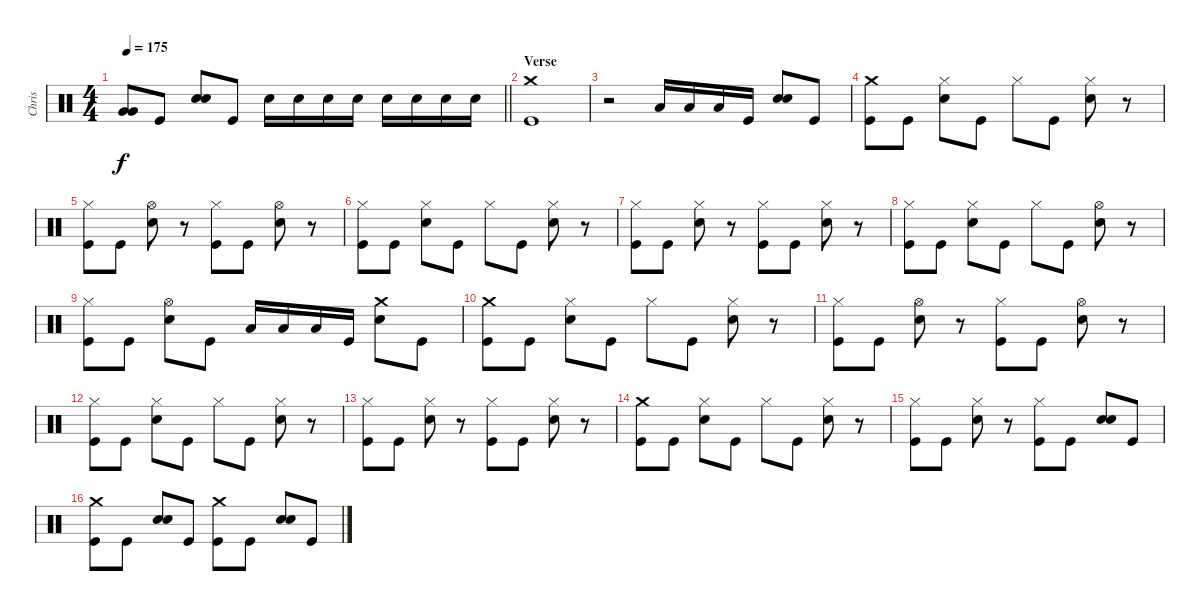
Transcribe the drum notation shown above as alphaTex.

\track ("Chris" "Chris") {instrument percussion}
\staff {score}
\articulation defaults
\ts (4 4)
\tempo 175
\clef neutral
\barLineRight lightlight
\ks c
("Very Low Tom (hit)" "Very Low Tom (hit)").8{bd 120 dy f} "Kick (hit)".8 ("Snare (hit) 2" "Snare (hit) 2").8{bd 120} "Kick (hit)".8 "Snare (hit) 2".16 "Snare (hit) 2".16 "Snare (hit) 2".16 "Snare (hit) 2".16 "Snare (hit) 2".16 "Snare (hit) 2".16 "Snare (hit) 2".16 "Snare (hit) 2".16 |
\section ("" "Verse")
("Crash medium (hit)" "Kick (hit)").1 |
r.2 "Low Floor Tom (hit)".16 "Low Floor Tom (hit)".16 "Low Floor Tom (hit)".16 "Kick (hit)".16 ("Snare (hit) 2" "Snare (hit) 2").8{bd 120} "Kick (hit)".8 |
("Crash medium (hit)" "Kick (hit)").8 "Kick (hit)".8 ("Hi-Hat (closed)" "Snare (hit) 2").8 "Kick (hit)".8 "Hi-Hat (closed)".8 "Kick (hit)".8 ("Hi-Hat (closed)" "Snare (hit) 2").8 r.8 |
("Hi-Hat (closed)" "Kick (hit)").8 "Kick (hit)".8 ("Hi-Hat (open)" "Snare (hit) 2").8 r.8 ("Hi-Hat (closed)" "Kick (hit)").8 "Kick (hit)".8 ("Hi-Hat (open)" "Snare (hit) 2").8 r.8 |
("Hi-Hat (closed)" "Kick (hit)").8 "Kick (hit)".8 ("Hi-Hat (closed)" "Snare (hit) 2").8 "Kick (hit)".8 "Hi-Hat (closed)".8 "Kick (hit)".8 ("Hi-Hat (closed)" "Snare (hit) 2").8 r.8 |
("Hi-Hat (closed)" "Kick (hit)").8 "Kick (hit)".8 ("Hi-Hat (closed)" "Snare (hit) 2").8 r.8 ("Hi-Hat (closed)" "Kick (hit)").8 "Kick (hit)".8 ("Hi-Hat (closed)" "Snare (hit) 2").8 r.8 |
("Hi-Hat (closed)" "Kick (hit)").8 "Kick (hit)".8 ("Hi-Hat (closed)" "Snare (hit) 2").8 "Kick (hit)".8 "Hi-Hat (closed)".8 "Kick (hit)".8 ("Hi-Hat (open)" "Snare (hit) 2").8 r.8 |
("Hi-Hat (closed)" "Kick (hit)").8 "Kick (hit)".8 ("Hi-Hat (open)" "Snare (hit) 2").8 "Kick (hit)".8 "Low Floor Tom (hit)".16 "Low Floor Tom (hit)".16 "Low Floor Tom (hit)".16 "Kick (hit)".16 ("Crash medium (hit)" "Snare (hit) 2").8 "Kick (hit)".8 |
("Crash medium (hit)" "Kick (hit)").8 "Kick (hit)".8 ("Hi-Hat (closed)" "Snare (hit) 2").8 "Kick (hit)".8 "Hi-Hat (closed)".8 "Kick (hit)".8 ("Hi-Hat (closed)" "Snare (hit) 2").8 r.8 |
("Hi-Hat (closed)" "Kick (hit)").8 "Kick (hit)".8 ("Hi-Hat (open)" "Snare (hit) 2").8 r.8 ("Hi-Hat (closed)" "Kick (hit)").8 "Kick (hit)".8 ("Hi-Hat (open)" "Snare (hit) 2").8 r.8 |
("Hi-Hat (closed)" "Kick (hit)").8 "Kick (hit)".8 ("Hi-Hat (closed)" "Snare (hit) 2").8 "Kick (hit)".8 "Hi-Hat (closed)".8 "Kick (hit)".8 ("Hi-Hat (closed)" "Snare (hit) 2").8 r.8 |
("Hi-Hat (closed)" "Kick (hit)").8 "Kick (hit)".8 ("Hi-Hat (closed)" "Snare (hit) 2").8 r.8 ("Hi-Hat (closed)" "Kick (hit)").8 "Kick (hit)".8 ("Hi-Hat (closed)" "Snare (hit) 2").8 r.8 |
("Crash medium (hit)" "Kick (hit)").8 "Kick (hit)".8 ("Hi-Hat (closed)" "Snare (hit) 2").8 "Kick (hit)".8 "Hi-Hat (closed)".8 "Kick (hit)".8 ("Hi-Hat (closed)" "Snare (hit) 2").8 r.8 |
("Hi-Hat (closed)" "Kick (hit)").8 "Kick (hit)".8 ("Hi-Hat (closed)" "Snare (hit) 2").8 r.8 ("Hi-Hat (closed)" "Kick (hit)").8 "Kick (hit)".8 ("Snare (hit) 2" "Snare (hit) 2").8{bd 120} "Kick (hit)".8 |
("Crash medium (hit)" "Kick (hit)").8 "Kick (hit)".8 ("Snare (hit) 2" "Snare (hit) 2").8{bd 120} "Kick (hit)".8 ("Crash medium (hit)" "Kick (hit)").8 "Kick (hit)".8 ("Snare (hit) 2" "Snare (hit) 2").8 "Kick (hit)".8
